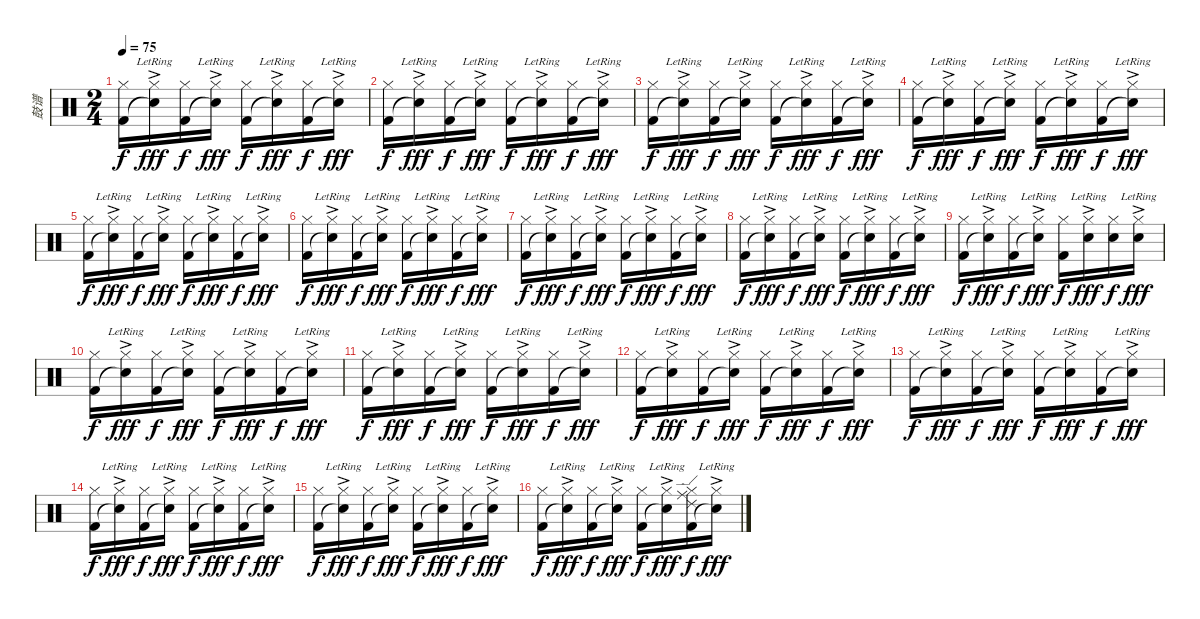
\track ("鼓谱" "鼓谱") {instrument percussion}
\staff {score}
\articulation defaults
\ts (2 4)
\tempo 75
\clef neutral
\ks c
("Kick (hit) 2" "Hi-Hat (closed)").16{dy f} ("Snare (hit)"{t} "Hi-Hat (closed)"{ac lr}).16{dy fff} ("Kick (hit) 2" "Hi-Hat (closed)").16{dy f} ("Snare (hit)"{t} "Hi-Hat (closed)"{ac lr}).16{dy fff} ("Kick (hit) 2" "Hi-Hat (closed)").16{dy f} ("Snare (hit)"{t} "Hi-Hat (closed)"{ac lr}).16{dy fff} ("Kick (hit) 2" "Hi-Hat (closed)").16{dy f} ("Snare (hit)"{t} "Hi-Hat (closed)"{ac lr}).16{dy fff} |
("Kick (hit) 2" "Hi-Hat (closed)").16{dy f} ("Snare (hit)"{t} "Hi-Hat (closed)"{ac lr}).16{dy fff} ("Kick (hit) 2" "Hi-Hat (closed)").16{dy f} ("Snare (hit)"{t} "Hi-Hat (closed)"{ac lr}).16{dy fff} ("Kick (hit) 2" "Hi-Hat (closed)").16{dy f} ("Snare (hit)"{t} "Hi-Hat (closed)"{ac lr}).16{dy fff} ("Kick (hit) 2" "Hi-Hat (closed)").16{dy f} ("Snare (hit)"{t} "Hi-Hat (closed)"{ac lr}).16{dy fff} |
("Kick (hit) 2" "Hi-Hat (closed)").16{dy f} ("Snare (hit)"{t} "Hi-Hat (closed)"{ac lr}).16{dy fff} ("Kick (hit) 2" "Hi-Hat (closed)").16{dy f} ("Snare (hit)"{t} "Hi-Hat (closed)"{ac lr}).16{dy fff} ("Kick (hit) 2" "Hi-Hat (closed)").16{dy f} ("Snare (hit)"{t} "Hi-Hat (closed)"{ac lr}).16{dy fff} ("Kick (hit) 2" "Hi-Hat (closed)").16{dy f} ("Snare (hit)"{t} "Hi-Hat (closed)"{ac lr}).16{dy fff} |
("Kick (hit) 2" "Hi-Hat (closed)").16{dy f} ("Snare (hit)"{t} "Hi-Hat (closed)"{ac lr}).16{dy fff} ("Kick (hit) 2" "Hi-Hat (closed)").16{dy f} ("Snare (hit)"{t} "Hi-Hat (closed)"{ac lr}).16{dy fff} ("Kick (hit) 2" "Hi-Hat (closed)").16{dy f} ("Snare (hit)"{t} "Hi-Hat (closed)"{ac lr}).16{dy fff} ("Kick (hit) 2" "Hi-Hat (closed)").16{dy f} ("Snare (hit)"{t} "Hi-Hat (closed)"{ac lr}).16{dy fff} |
("Kick (hit) 2" "Hi-Hat (closed)").16{dy f} ("Snare (hit)"{t} "Hi-Hat (closed)"{ac lr}).16{dy fff} ("Kick (hit) 2" "Hi-Hat (closed)").16{dy f} ("Snare (hit)"{t} "Hi-Hat (closed)"{ac lr}).16{dy fff} ("Kick (hit) 2" "Hi-Hat (closed)").16{dy f} ("Snare (hit)"{t} "Hi-Hat (closed)"{ac lr}).16{dy fff} ("Kick (hit) 2" "Hi-Hat (closed)").16{dy f} ("Snare (hit)"{t} "Hi-Hat (closed)"{ac lr}).16{dy fff} |
("Kick (hit) 2" "Hi-Hat (closed)").16{dy f} ("Snare (hit)"{t} "Hi-Hat (closed)"{ac lr}).16{dy fff} ("Kick (hit) 2" "Hi-Hat (closed)").16{dy f} ("Snare (hit)"{t} "Hi-Hat (closed)"{ac lr}).16{dy fff} ("Kick (hit) 2" "Hi-Hat (closed)").16{dy f} ("Snare (hit)"{t} "Hi-Hat (closed)"{ac lr}).16{dy fff} ("Kick (hit) 2" "Hi-Hat (closed)").16{dy f} ("Snare (hit)"{t} "Hi-Hat (closed)"{ac lr}).16{dy fff} |
("Kick (hit) 2" "Hi-Hat (closed)").16{dy f} ("Snare (hit)"{t} "Hi-Hat (closed)"{ac lr}).16{dy fff} ("Kick (hit) 2" "Hi-Hat (closed)").16{dy f} ("Snare (hit)"{t} "Hi-Hat (closed)"{ac lr}).16{dy fff} ("Kick (hit) 2" "Hi-Hat (closed)").16{dy f} ("Snare (hit)"{t} "Hi-Hat (closed)"{ac lr}).16{dy fff} ("Kick (hit) 2" "Hi-Hat (closed)").16{dy f} ("Snare (hit)"{t} "Hi-Hat (closed)"{ac lr}).16{dy fff} |
("Kick (hit) 2" "Hi-Hat (closed)").16{dy f} ("Snare (hit)"{t} "Hi-Hat (closed)"{ac lr}).16{dy fff} ("Kick (hit) 2" "Hi-Hat (closed)").16{dy f} ("Snare (hit)"{t} "Hi-Hat (closed)"{ac lr}).16{dy fff} ("Kick (hit) 2" "Hi-Hat (closed)").16{dy f} ("Snare (hit)"{t} "Hi-Hat (closed)"{ac lr}).16{dy fff} ("Kick (hit) 2" "Hi-Hat (closed)").16{dy f} ("Snare (hit)"{t} "Hi-Hat (closed)"{ac lr}).16{dy fff} |
("Kick (hit) 2" "Hi-Hat (closed)").16{dy f} ("Snare (hit)"{t} "Hi-Hat (closed)"{ac lr}).16{dy fff} ("Kick (hit) 2" "Hi-Hat (closed)").16{dy f} ("Snare (hit)"{t} "Hi-Hat (closed)"{ac lr}).16{dy fff} ("Kick (hit) 2" "Hi-Hat (closed)").16{dy f} ("Electric Snare (hit)" "Hi-Hat (closed)"{ac lr}).16{dy fff} ("Electric Snare (hit)" "Hi-Hat (closed)").16{dy f volume 14} ("Electric Snare (hit)" "Hi-Hat (closed)"{ac lr}).16{dy fff volume 16} |
("Kick (hit) 2" "Hi-Hat (closed)").16{dy f volume 12} ("Snare (hit)"{t} "Hi-Hat (closed)"{ac lr}).16{dy fff} ("Kick (hit) 2" "Hi-Hat (closed)").16{dy f} ("Snare (hit)"{t} "Hi-Hat (closed)"{ac lr}).16{dy fff} ("Kick (hit) 2" "Hi-Hat (closed)").16{dy f} ("Snare (hit)"{t} "Hi-Hat (closed)"{ac lr}).16{dy fff} ("Kick (hit) 2" "Hi-Hat (closed)").16{dy f} ("Snare (hit)"{t} "Hi-Hat (closed)"{ac lr}).16{dy fff} |
("Kick (hit) 2" "Hi-Hat (closed)").16{dy f} ("Snare (hit)"{t} "Hi-Hat (closed)"{ac lr}).16{dy fff} ("Kick (hit) 2" "Hi-Hat (closed)").16{dy f} ("Snare (hit)"{t} "Hi-Hat (closed)"{ac lr}).16{dy fff} ("Kick (hit) 2" "Hi-Hat (closed)").16{dy f} ("Snare (hit)"{t} "Hi-Hat (closed)"{ac lr}).16{dy fff} ("Kick (hit) 2" "Hi-Hat (closed)").16{dy f} ("Snare (hit)"{t} "Hi-Hat (closed)"{ac lr}).16{dy fff} |
("Kick (hit) 2" "Hi-Hat (closed)").16{dy f} ("Snare (hit)"{t} "Hi-Hat (closed)"{ac lr}).16{dy fff} ("Kick (hit) 2" "Hi-Hat (closed)").16{dy f} ("Snare (hit)"{t} "Hi-Hat (closed)"{ac lr}).16{dy fff} ("Kick (hit) 2" "Hi-Hat (closed)").16{dy f} ("Snare (hit)"{t} "Hi-Hat (closed)"{ac lr}).16{dy fff} ("Kick (hit) 2" "Hi-Hat (closed)").16{dy f} ("Snare (hit)"{t} "Hi-Hat (closed)"{ac lr}).16{dy fff} |
("Kick (hit) 2" "Hi-Hat (closed)").16{dy f} ("Snare (hit)"{t} "Hi-Hat (closed)"{ac lr}).16{dy fff} ("Kick (hit) 2" "Hi-Hat (closed)").16{dy f} ("Snare (hit)"{t} "Hi-Hat (closed)"{ac lr}).16{dy fff} ("Kick (hit) 2" "Hi-Hat (closed)").16{dy f} ("Snare (hit)"{t} "Hi-Hat (closed)"{ac lr}).16{dy fff} ("Kick (hit) 2" "Hi-Hat (closed)").16{dy f} ("Snare (hit)"{t} "Hi-Hat (closed)"{ac lr}).16{dy fff} |
("Kick (hit) 2" "Hi-Hat (closed)").16{dy f} ("Snare (hit)"{t} "Hi-Hat (closed)"{ac lr}).16{dy fff} ("Kick (hit) 2" "Hi-Hat (closed)").16{dy f} ("Snare (hit)"{t} "Hi-Hat (closed)"{ac lr}).16{dy fff} ("Kick (hit) 2" "Hi-Hat (closed)").16{dy f} ("Snare (hit)"{t} "Hi-Hat (closed)"{ac lr}).16{dy fff} ("Kick (hit) 2" "Hi-Hat (closed)").16{dy f} ("Snare (hit)"{t} "Hi-Hat (closed)"{ac lr}).16{dy fff} |
("Kick (hit) 2" "Hi-Hat (closed)").16{dy f} ("Snare (hit)"{t} "Hi-Hat (closed)"{ac lr}).16{dy fff} ("Kick (hit) 2" "Hi-Hat (closed)").16{dy f} ("Snare (hit)"{t} "Hi-Hat (closed)"{ac lr}).16{dy fff} ("Kick (hit) 2" "Hi-Hat (closed)").16{dy f} ("Snare (hit)"{t} "Hi-Hat (closed)"{ac lr}).16{dy fff} ("Kick (hit) 2" "Hi-Hat (closed)").16{dy f} ("Snare (hit)"{t} "Hi-Hat (closed)"{ac lr}).16{dy fff} |
("Kick (hit) 2" "Hi-Hat (closed)").16{dy f} ("Snare (hit)"{t} "Hi-Hat (closed)"{ac lr}).16{dy fff} ("Kick (hit) 2" "Hi-Hat (closed)").16{dy f} ("Snare (hit)"{t} "Hi-Hat (closed)"{ac lr}).16{dy fff} ("Kick (hit) 2" "Hi-Hat (closed)").16{dy f} ("Snare (hit)"{t} "Hi-Hat (closed)"{ac lr}).16{dy fff} ("Kick (hit) 2" "Ride (edge) 2" "Ride (middle)" "Hi-Hat (closed)").16{dy f} ("Snare (hit)"{t} "Hi-Hat (closed)"{ac lr}).16{dy fff}
